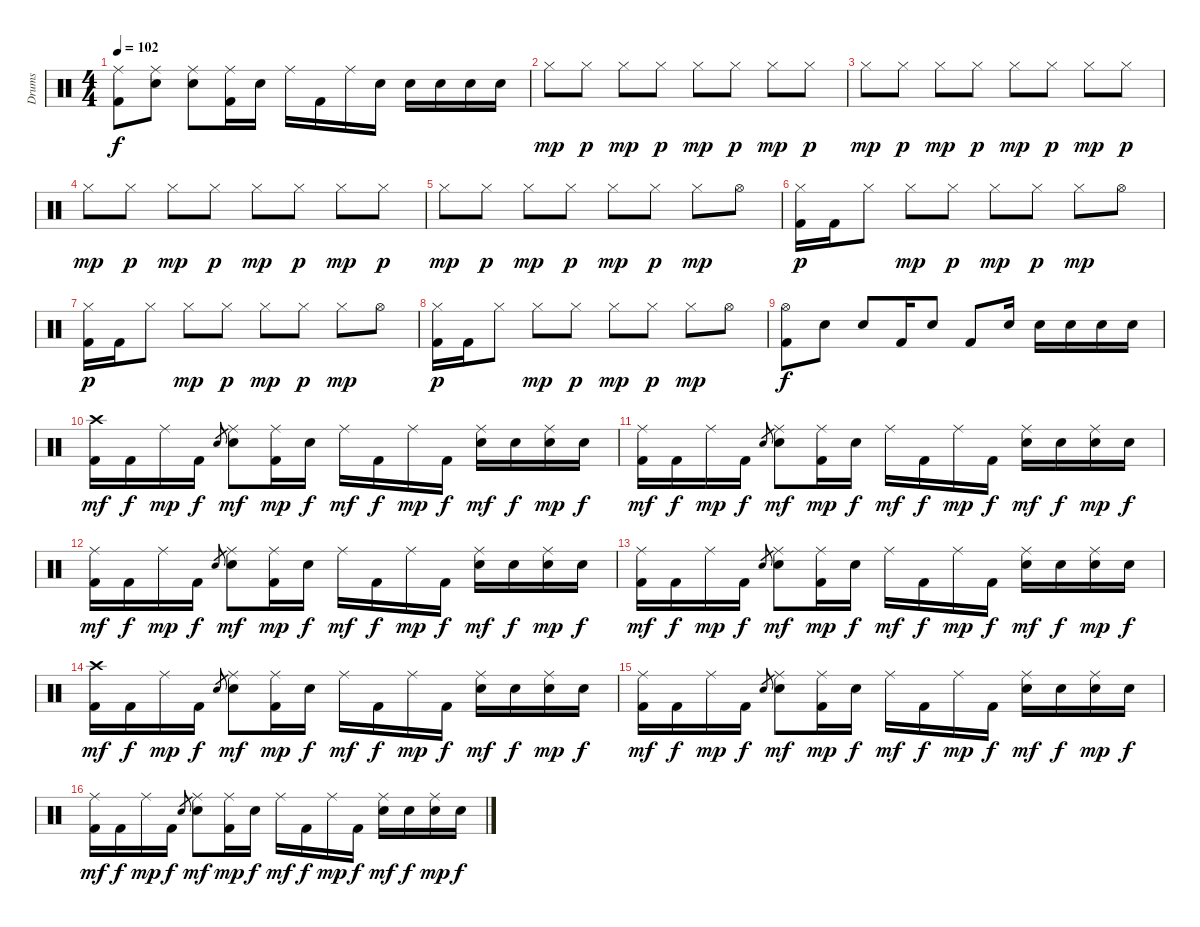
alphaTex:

\track ("Drums" "Drums") {instrument percussion}
\staff {score}
\articulation defaults
\ts (4 4)
\tempo 102
\clef neutral
\ks c
("Ride (middle)" "Kick (hit) 2").8{dy f} ("Ride (middle)" "Snare (hit) 2").8 ("Ride (middle)" "Snare (hit) 2").8 ("Ride (middle)" "Kick (hit) 2").16 "Snare (hit) 2".16 "Ride (middle)".16 "Kick (hit) 2".16 "Ride (middle)".16 "Snare (hit) 2".16 "Snare (hit) 2".16 "Snare (hit) 2".16 "Snare (hit) 2".16 "Snare (hit) 2".16 |
"Hi-Hat (closed)".8{dy mp} "Hi-Hat (closed)".8{dy p} "Hi-Hat (closed)".8{dy mp} "Hi-Hat (closed)".8{dy p} "Hi-Hat (closed)".8{dy mp} "Hi-Hat (closed)".8{dy p} "Hi-Hat (closed)".8{dy mp} "Hi-Hat (closed)".8{dy p} |
"Hi-Hat (closed)".8{dy mp} "Hi-Hat (closed)".8{dy p} "Hi-Hat (closed)".8{dy mp} "Hi-Hat (closed)".8{dy p} "Hi-Hat (closed)".8{dy mp} "Hi-Hat (closed)".8{dy p} "Hi-Hat (closed)".8{dy mp} "Hi-Hat (closed)".8{dy p} |
"Hi-Hat (closed)".8{dy mp} "Hi-Hat (closed)".8{dy p} "Hi-Hat (closed)".8{dy mp} "Hi-Hat (closed)".8{dy p} "Hi-Hat (closed)".8{dy mp} "Hi-Hat (closed)".8{dy p} "Hi-Hat (closed)".8{dy mp} "Hi-Hat (closed)".8{dy p} |
"Hi-Hat (closed)".8{dy mp} "Hi-Hat (closed)".8{dy p} "Hi-Hat (closed)".8{dy mp} "Hi-Hat (closed)".8{dy p} "Hi-Hat (closed)".8{dy mp} "Hi-Hat (closed)".8{dy p} "Hi-Hat (closed)".8{dy mp} "Hi-Hat (open)".8 |
("Hi-Hat (closed)" "Kick (hit) 2").16{dy p} "Kick (hit) 2".16 "Hi-Hat (closed)".8 "Hi-Hat (closed)".8{dy mp} "Hi-Hat (closed)".8{dy p} "Hi-Hat (closed)".8{dy mp} "Hi-Hat (closed)".8{dy p} "Hi-Hat (closed)".8{dy mp} "Hi-Hat (open)".8 |
("Hi-Hat (closed)" "Kick (hit) 2").16{dy p} "Kick (hit) 2".16 "Hi-Hat (closed)".8 "Hi-Hat (closed)".8{dy mp} "Hi-Hat (closed)".8{dy p} "Hi-Hat (closed)".8{dy mp} "Hi-Hat (closed)".8{dy p} "Hi-Hat (closed)".8{dy mp} "Hi-Hat (open)".8 |
("Hi-Hat (closed)" "Kick (hit) 2").16{dy p} "Kick (hit) 2".16 "Hi-Hat (closed)".8 "Hi-Hat (closed)".8{dy mp} "Hi-Hat (closed)".8{dy p} "Hi-Hat (closed)".8{dy mp} "Hi-Hat (closed)".8{dy p} "Hi-Hat (closed)".8{dy mp} "Hi-Hat (open)".8 |
("Hi-Hat (open)" "Kick (hit) 2").8{dy f} "Snare (hit) 2".8 "Snare (hit) 2".8 "Kick (hit) 2".16 "Snare (hit) 2".8 "Kick (hit) 2".8 "Snare (hit) 2".16 "Snare (hit) 2".16 "Snare (hit) 2".16 "Snare (hit) 2".16 "Snare (hit) 2".16 |
("Crash high (hit)" "Kick (hit) 2").16{dy mf} "Kick (hit) 2".16{dy f} "Ride (middle)".16{dy mp} "Kick (hit) 2".16{dy f} "Snare (hit) 2".8{gr} ("Ride (middle)" "Snare (hit) 2").8{dy mf} ("Ride (middle)" "Kick (hit) 2").16{dy mp} "Snare (hit) 2".16{dy f} "Ride (middle)".16{dy mf} "Kick (hit) 2".16{dy f} "Ride (middle)".16{dy mp} "Kick (hit) 2".16{dy f} ("Ride (middle)" "Snare (hit) 2").16{dy mf} "Snare (hit) 2".16{dy f} ("Ride (middle)" "Snare (hit) 2").16{dy mp} "Snare (hit) 2".16{dy f} |
("Ride (middle)" "Kick (hit) 2").16{dy mf} "Kick (hit) 2".16{dy f} "Ride (middle)".16{dy mp} "Kick (hit) 2".16{dy f} "Snare (hit) 2".8{gr} ("Ride (middle)" "Snare (hit) 2").8{dy mf} ("Ride (middle)" "Kick (hit) 2").16{dy mp} "Snare (hit) 2".16{dy f} "Ride (middle)".16{dy mf} "Kick (hit) 2".16{dy f} "Ride (middle)".16{dy mp} "Kick (hit) 2".16{dy f} ("Ride (middle)" "Snare (hit) 2").16{dy mf} "Snare (hit) 2".16{dy f} ("Ride (middle)" "Snare (hit) 2").16{dy mp} "Snare (hit) 2".16{dy f} |
("Ride (middle)" "Kick (hit) 2").16{dy mf} "Kick (hit) 2".16{dy f} "Ride (middle)".16{dy mp} "Kick (hit) 2".16{dy f} "Snare (hit) 2".8{gr} ("Ride (middle)" "Snare (hit) 2").8{dy mf} ("Ride (middle)" "Kick (hit) 2").16{dy mp} "Snare (hit) 2".16{dy f} "Ride (middle)".16{dy mf} "Kick (hit) 2".16{dy f} "Ride (middle)".16{dy mp} "Kick (hit) 2".16{dy f} ("Ride (middle)" "Snare (hit) 2").16{dy mf} "Snare (hit) 2".16{dy f} ("Ride (middle)" "Snare (hit) 2").16{dy mp} "Snare (hit) 2".16{dy f} |
("Ride (middle)" "Kick (hit) 2").16{dy mf} "Kick (hit) 2".16{dy f} "Ride (middle)".16{dy mp} "Kick (hit) 2".16{dy f} "Snare (hit) 2".8{gr} ("Ride (middle)" "Snare (hit) 2").8{dy mf} ("Ride (middle)" "Kick (hit) 2").16{dy mp} "Snare (hit) 2".16{dy f} "Ride (middle)".16{dy mf} "Kick (hit) 2".16{dy f} "Ride (middle)".16{dy mp} "Kick (hit) 2".16{dy f} ("Ride (middle)" "Snare (hit) 2").16{dy mf} "Snare (hit) 2".16{dy f} ("Ride (middle)" "Snare (hit) 2").16{dy mp} "Snare (hit) 2".16{dy f} |
("Crash high (hit)" "Kick (hit) 2").16{dy mf} "Kick (hit) 2".16{dy f} "Ride (middle)".16{dy mp} "Kick (hit) 2".16{dy f} "Snare (hit) 2".8{gr} ("Ride (middle)" "Snare (hit) 2").8{dy mf} ("Ride (middle)" "Kick (hit) 2").16{dy mp} "Snare (hit) 2".16{dy f} "Ride (middle)".16{dy mf} "Kick (hit) 2".16{dy f} "Ride (middle)".16{dy mp} "Kick (hit) 2".16{dy f} ("Ride (middle)" "Snare (hit) 2").16{dy mf} "Snare (hit) 2".16{dy f} ("Ride (middle)" "Snare (hit) 2").16{dy mp} "Snare (hit) 2".16{dy f} |
("Ride (middle)" "Kick (hit) 2").16{dy mf} "Kick (hit) 2".16{dy f} "Ride (middle)".16{dy mp} "Kick (hit) 2".16{dy f} "Snare (hit) 2".8{gr} ("Ride (middle)" "Snare (hit) 2").8{dy mf} ("Ride (middle)" "Kick (hit) 2").16{dy mp} "Snare (hit) 2".16{dy f} "Ride (middle)".16{dy mf} "Kick (hit) 2".16{dy f} "Ride (middle)".16{dy mp} "Kick (hit) 2".16{dy f} ("Ride (middle)" "Snare (hit) 2").16{dy mf} "Snare (hit) 2".16{dy f} ("Ride (middle)" "Snare (hit) 2").16{dy mp} "Snare (hit) 2".16{dy f} |
("Ride (middle)" "Kick (hit) 2").16{dy mf} "Kick (hit) 2".16{dy f} "Ride (middle)".16{dy mp} "Kick (hit) 2".16{dy f} "Snare (hit) 2".8{gr} ("Ride (middle)" "Snare (hit) 2").8{dy mf} ("Ride (middle)" "Kick (hit) 2").16{dy mp} "Snare (hit) 2".16{dy f} "Ride (middle)".16{dy mf} "Kick (hit) 2".16{dy f} "Ride (middle)".16{dy mp} "Kick (hit) 2".16{dy f} ("Ride (middle)" "Snare (hit) 2").16{dy mf} "Snare (hit) 2".16{dy f} ("Ride (middle)" "Snare (hit) 2").16{dy mp} "Snare (hit) 2".16{dy f}
